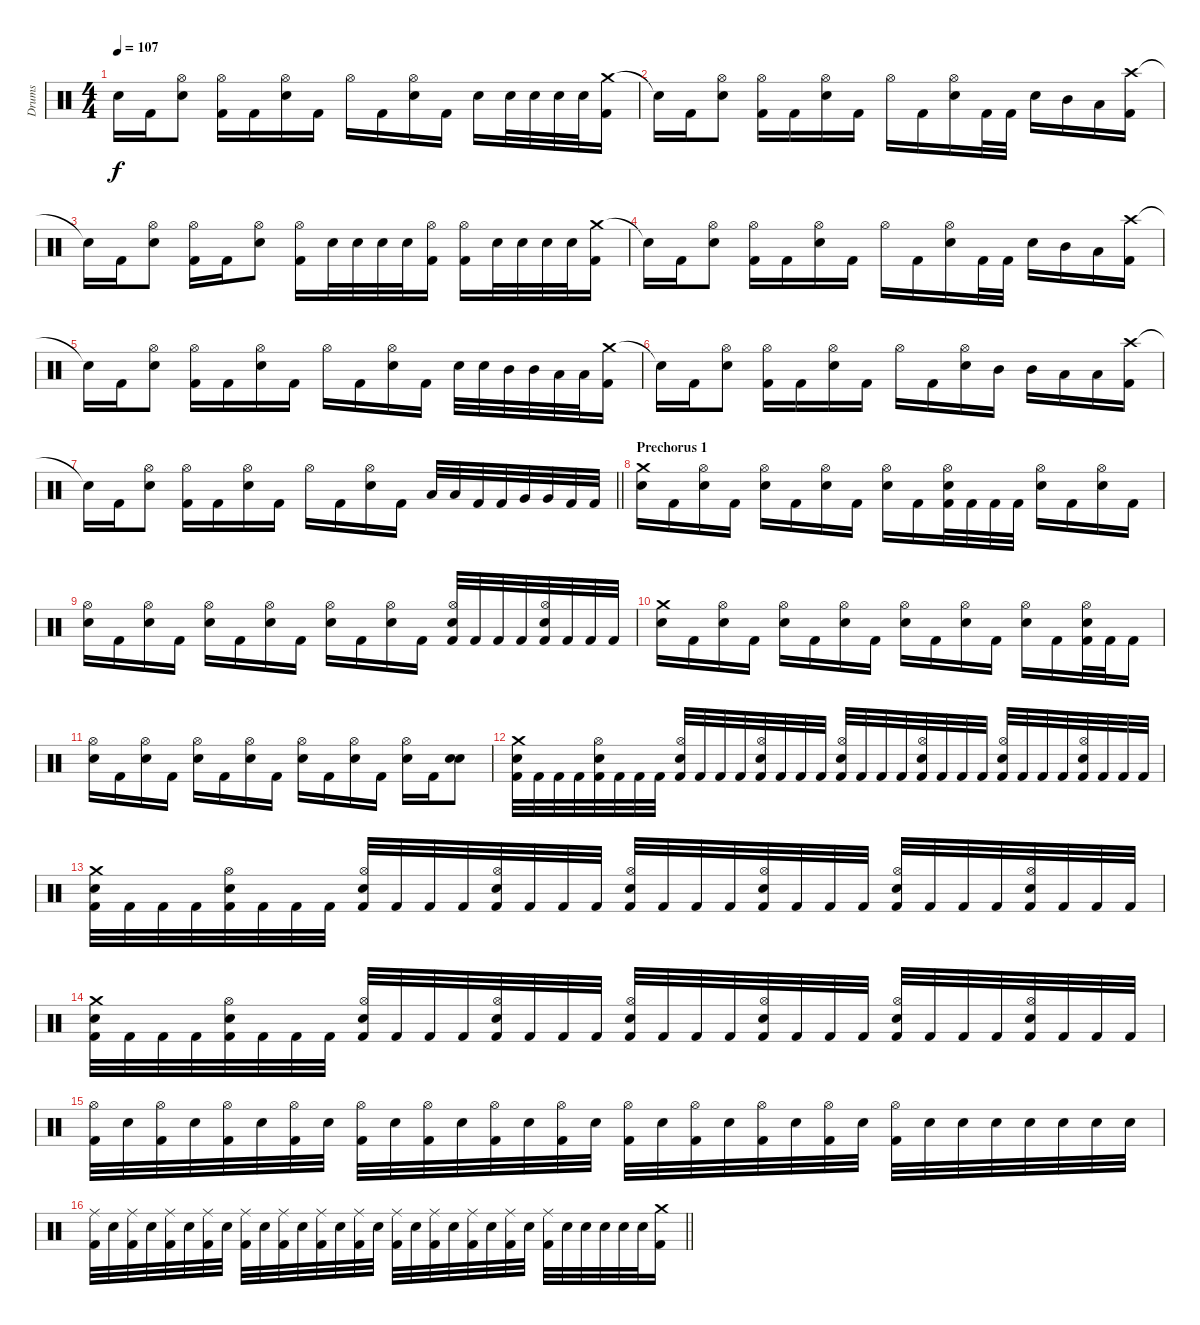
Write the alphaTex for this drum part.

\track ("Drums" "Drums") {instrument percussion}
\staff {score}
\articulation defaults
\ts (4 4)
\tempo 107
\clef neutral
\ks c "Snare (hit)"{t}.16{dy f} "Kick (hit) 2".16
("Hi-Hat (open)" "Electric Snare (hit)").8 ("Hi-Hat (open)" "Kick (hit) 2").16 "Kick (hit) 2".16 ("Hi-Hat (open)" "Electric Snare (hit)").16 "Kick (hit) 2".16 "Hi-Hat (open)".16 "Kick (hit) 2".16 ("Hi-Hat (open)" "Electric Snare (hit)").16 "Kick (hit) 2".16 "Electric Snare (hit)".16 "Electric Snare (hit)".32 "Electric Snare (hit)".32 "Electric Snare (hit)".32 "Electric Snare (hit)".32 ("Crash medium (hit)" "Kick (hit) 2").16 |
"Snare (hit)"{t}.16 "Kick (hit) 2".16 ("Hi-Hat (open)" "Electric Snare (hit)").8 ("Hi-Hat (open)" "Kick (hit) 2").16 "Kick (hit) 2".16 ("Hi-Hat (open)" "Electric Snare (hit)").16 "Kick (hit) 2".16 "Hi-Hat (open)".16 "Kick (hit) 2".16 ("Hi-Hat (open)" "Electric Snare (hit)").16 "Kick (hit) 2".32 "Kick (hit) 2".32 "Electric Snare (hit)".16 "Mid Tom (hit)".16 "Low Tom (hit)".16 ("Crash high (hit)" "Kick (hit) 2").16 |
"Snare (hit)"{t}.16 "Kick (hit) 2".16 ("Hi-Hat (open)" "Electric Snare (hit)").8 ("Hi-Hat (open)" "Kick (hit) 2").16 "Kick (hit) 2".16 ("Hi-Hat (open)" "Electric Snare (hit)").8 ("Hi-Hat (open)" "Kick (hit) 2").16 "Electric Snare (hit)".32 "Electric Snare (hit)".32 "Electric Snare (hit)".32 "Electric Snare (hit)".32 ("Hi-Hat (open)" "Kick (hit) 2").16 ("Hi-Hat (open)" "Kick (hit) 2").16 "Electric Snare (hit)".32 "Electric Snare (hit)".32 "Electric Snare (hit)".32 "Electric Snare (hit)".32 ("Crash medium (hit)" "Kick (hit) 2").16 |
"Snare (hit)"{t}.16 "Kick (hit) 2".16 ("Hi-Hat (open)" "Electric Snare (hit)").8 ("Hi-Hat (open)" "Kick (hit) 2").16 "Kick (hit) 2".16 ("Hi-Hat (open)" "Electric Snare (hit)").16 "Kick (hit) 2".16 "Hi-Hat (open)".16 "Kick (hit) 2".16 ("Hi-Hat (open)" "Electric Snare (hit)").16 "Kick (hit) 2".32 "Kick (hit) 2".32 "Electric Snare (hit)".16 "Mid Tom (hit)".16 "Low Tom (hit)".16 ("Crash high (hit)" "Kick (hit) 2").16 |
"Snare (hit)"{t}.16 "Kick (hit) 2".16 ("Hi-Hat (open)" "Electric Snare (hit)").8 ("Hi-Hat (open)" "Kick (hit) 2").16 "Kick (hit) 2".16 ("Hi-Hat (open)" "Electric Snare (hit)").16 "Kick (hit) 2".16 "Hi-Hat (open)".16 "Kick (hit) 2".16 ("Hi-Hat (open)" "Electric Snare (hit)").16 "Kick (hit) 2".16 "Electric Snare (hit)".32 "Electric Snare (hit)".32 "Mid Tom (hit)".32 "Mid Tom (hit)".32 "Low Tom (hit)".32 "Low Tom (hit)".32 ("Crash medium (hit)" "Kick (hit) 2").16 |
"Snare (hit)"{t}.16 "Kick (hit) 2".16 ("Hi-Hat (open)" "Electric Snare (hit)").8 ("Hi-Hat (open)" "Kick (hit) 2").16 "Kick (hit) 2".16 ("Hi-Hat (open)" "Electric Snare (hit)").16 "Kick (hit) 2".16 "Hi-Hat (open)".16 "Kick (hit) 2".16 ("Hi-Hat (open)" "Electric Snare (hit)").16 "Mid Tom (hit)".16 "Mid Tom (hit)".16 "Low Tom (hit)".16 "Low Tom (hit)".16 ("Crash high (hit)" "Kick (hit) 2").16 |
\barLineRight lightlight "Snare (hit)"{t}.16 "Kick (hit) 2".16
("Hi-Hat (open)" "Electric Snare (hit)").8 ("Hi-Hat (open)" "Kick (hit) 2").16 "Kick (hit) 2".16 ("Hi-Hat (open)" "Electric Snare (hit)").16 "Kick (hit) 2".16 "Hi-Hat (open)".16 "Kick (hit) 2".16 ("Hi-Hat (open)" "Electric Snare (hit)").16 "Kick (hit) 2".16 "Low Tom (hit)".32 "Low Tom (hit)".32 "Kick (hit) 2".32 "Kick (hit) 2".32 "Very Low Tom (hit)".32 "Very Low Tom (hit)".32 "Kick (hit) 2".32 "Kick (hit) 2".32 |
\section ("" "Prechorus 1")
("Crash medium (hit)" "Electric Snare (hit)").16 "Kick (hit) 2".16 ("Hi-Hat (open)" "Electric Snare (hit)").16 "Kick (hit) 2".16 ("Hi-Hat (open)" "Electric Snare (hit)").16 "Kick (hit) 2".16 ("Hi-Hat (open)" "Electric Snare (hit)").16 "Kick (hit) 2".16 ("Hi-Hat (open)" "Electric Snare (hit)").16 "Kick (hit) 2".16 ("Hi-Hat (open)" "Electric Snare (hit)" "Kick (hit) 2").32 "Kick (hit) 2".32 "Kick (hit) 2".32 "Kick (hit) 2".32 ("Hi-Hat (open)" "Electric Snare (hit)").16 "Kick (hit) 2".16 ("Hi-Hat (open)" "Electric Snare (hit)").16 "Kick (hit) 2".16 |
("Hi-Hat (open)" "Electric Snare (hit)").16 "Kick (hit) 2".16 ("Hi-Hat (open)" "Electric Snare (hit)").16 "Kick (hit) 2".16 ("Hi-Hat (open)" "Electric Snare (hit)").16 "Kick (hit) 2".16 ("Hi-Hat (open)" "Electric Snare (hit)").16 "Kick (hit) 2".16 ("Hi-Hat (open)" "Electric Snare (hit)").16 "Kick (hit) 2".16 ("Hi-Hat (open)" "Electric Snare (hit)").16 "Kick (hit) 2".16 ("Hi-Hat (open)" "Electric Snare (hit)" "Kick (hit) 2").32 "Kick (hit) 2".32 "Kick (hit) 2".32 "Kick (hit) 2".32 ("Hi-Hat (open)" "Electric Snare (hit)" "Kick (hit) 2").32 "Kick (hit) 2".32 "Kick (hit) 2".32 "Kick (hit) 2".32 |
("Crash medium (hit)" "Electric Snare (hit)").16 "Kick (hit) 2".16 ("Hi-Hat (open)" "Electric Snare (hit)").16 "Kick (hit) 2".16 ("Hi-Hat (open)" "Electric Snare (hit)").16 "Kick (hit) 2".16 ("Hi-Hat (open)" "Electric Snare (hit)").16 "Kick (hit) 2".16 ("Hi-Hat (open)" "Electric Snare (hit)").16 "Kick (hit) 2".16 ("Hi-Hat (open)" "Electric Snare (hit)").16 "Kick (hit) 2".16 ("Hi-Hat (open)" "Electric Snare (hit)").16 "Kick (hit) 2".16 ("Hi-Hat (open)" "Electric Snare (hit)" "Kick (hit) 2").32 "Kick (hit) 2".32 "Kick (hit) 2".16 |
("Hi-Hat (open)" "Electric Snare (hit)").16 "Kick (hit) 2".16 ("Hi-Hat (open)" "Electric Snare (hit)").16 "Kick (hit) 2".16 ("Hi-Hat (open)" "Electric Snare (hit)").16 "Kick (hit) 2".16 ("Hi-Hat (open)" "Electric Snare (hit)").16 "Kick (hit) 2".16 ("Hi-Hat (open)" "Electric Snare (hit)").16 "Kick (hit) 2".16 ("Hi-Hat (open)" "Electric Snare (hit)").16 "Kick (hit) 2".16 ("Hi-Hat (open)" "Electric Snare (hit)").16 "Kick (hit) 2".16 ("Electric Snare (hit)" "Electric Snare (hit)").8 |
("Crash medium (hit)" "Electric Snare (hit)" "Kick (hit) 2").32 "Kick (hit) 2".32 "Kick (hit) 2".32 "Kick (hit) 2".32 ("Hi-Hat (open)" "Electric Snare (hit)" "Kick (hit) 2").32 "Kick (hit) 2".32 "Kick (hit) 2".32 "Kick (hit) 2".32 ("Hi-Hat (open)" "Electric Snare (hit)" "Kick (hit) 2").32 "Kick (hit) 2".32 "Kick (hit) 2".32 "Kick (hit) 2".32 ("Hi-Hat (open)" "Electric Snare (hit)" "Kick (hit) 2").32 "Kick (hit) 2".32 "Kick (hit) 2".32 "Kick (hit) 2".32 ("Hi-Hat (open)" "Electric Snare (hit)" "Kick (hit) 2").32 "Kick (hit) 2".32 "Kick (hit) 2".32 "Kick (hit) 2".32 ("Hi-Hat (open)" "Electric Snare (hit)" "Kick (hit) 2").32 "Kick (hit) 2".32 "Kick (hit) 2".32 "Kick (hit) 2".32 ("Hi-Hat (open)" "Electric Snare (hit)" "Kick (hit) 2").32 "Kick (hit) 2".32 "Kick (hit) 2".32 "Kick (hit) 2".32 ("Hi-Hat (open)" "Electric Snare (hit)" "Kick (hit) 2").32 "Kick (hit) 2".32 "Kick (hit) 2".32 "Kick (hit) 2".32 |
("Crash medium (hit)" "Electric Snare (hit)" "Kick (hit) 2").32 "Kick (hit) 2".32 "Kick (hit) 2".32 "Kick (hit) 2".32 ("Hi-Hat (open)" "Electric Snare (hit)" "Kick (hit) 2").32 "Kick (hit) 2".32 "Kick (hit) 2".32 "Kick (hit) 2".32 ("Hi-Hat (open)" "Electric Snare (hit)" "Kick (hit) 2").32 "Kick (hit) 2".32 "Kick (hit) 2".32 "Kick (hit) 2".32 ("Hi-Hat (open)" "Electric Snare (hit)" "Kick (hit) 2").32 "Kick (hit) 2".32 "Kick (hit) 2".32 "Kick (hit) 2".32 ("Hi-Hat (open)" "Electric Snare (hit)" "Kick (hit) 2").32 "Kick (hit) 2".32 "Kick (hit) 2".32 "Kick (hit) 2".32 ("Hi-Hat (open)" "Electric Snare (hit)" "Kick (hit) 2").32 "Kick (hit) 2".32 "Kick (hit) 2".32 "Kick (hit) 2".32 ("Hi-Hat (open)" "Electric Snare (hit)" "Kick (hit) 2").32 "Kick (hit) 2".32 "Kick (hit) 2".32 "Kick (hit) 2".32 ("Hi-Hat (open)" "Electric Snare (hit)" "Kick (hit) 2").32 "Kick (hit) 2".32 "Kick (hit) 2".32 "Kick (hit) 2".32 |
("Crash medium (hit)" "Electric Snare (hit)" "Kick (hit) 2").32 "Kick (hit) 2".32 "Kick (hit) 2".32 "Kick (hit) 2".32 ("Hi-Hat (open)" "Electric Snare (hit)" "Kick (hit) 2").32 "Kick (hit) 2".32 "Kick (hit) 2".32 "Kick (hit) 2".32 ("Hi-Hat (open)" "Electric Snare (hit)" "Kick (hit) 2").32 "Kick (hit) 2".32 "Kick (hit) 2".32 "Kick (hit) 2".32 ("Hi-Hat (open)" "Electric Snare (hit)" "Kick (hit) 2").32 "Kick (hit) 2".32 "Kick (hit) 2".32 "Kick (hit) 2".32 ("Hi-Hat (open)" "Electric Snare (hit)" "Kick (hit) 2").32 "Kick (hit) 2".32 "Kick (hit) 2".32 "Kick (hit) 2".32 ("Hi-Hat (open)" "Electric Snare (hit)" "Kick (hit) 2").32 "Kick (hit) 2".32 "Kick (hit) 2".32 "Kick (hit) 2".32 ("Hi-Hat (open)" "Electric Snare (hit)" "Kick (hit) 2").32 "Kick (hit) 2".32 "Kick (hit) 2".32 "Kick (hit) 2".32 ("Hi-Hat (open)" "Electric Snare (hit)" "Kick (hit) 2").32 "Kick (hit) 2".32 "Kick (hit) 2".32 "Kick (hit) 2".32 |
("Hi-Hat (open)" "Kick (hit) 2").32 "Electric Snare (hit)".32 ("Hi-Hat (open)" "Kick (hit) 2").32 "Electric Snare (hit)".32 ("Hi-Hat (open)" "Kick (hit) 2").32 "Electric Snare (hit)".32 ("Hi-Hat (open)" "Kick (hit) 2").32 "Electric Snare (hit)".32 ("Hi-Hat (open)" "Kick (hit) 2").32 "Electric Snare (hit)".32 ("Hi-Hat (open)" "Kick (hit) 2").32 "Electric Snare (hit)".32 ("Hi-Hat (open)" "Kick (hit) 2").32 "Electric Snare (hit)".32 ("Hi-Hat (open)" "Kick (hit) 2").32 "Electric Snare (hit)".32 ("Hi-Hat (open)" "Kick (hit) 2").32 "Electric Snare (hit)".32 ("Hi-Hat (open)" "Kick (hit) 2").32 "Electric Snare (hit)".32 ("Hi-Hat (open)" "Kick (hit) 2").32 "Electric Snare (hit)".32 ("Hi-Hat (open)" "Kick (hit) 2").32 "Electric Snare (hit)".32 ("Hi-Hat (open)" "Kick (hit) 2").32 "Electric Snare (hit)".32 "Electric Snare (hit)".32 "Electric Snare (hit)".32 "Electric Snare (hit)".32 "Electric Snare (hit)".32 "Electric Snare (hit)".32 "Electric Snare (hit)".32 |
\barLineRight lightlight
("Ride (middle)" "Kick (hit) 2").32 "Electric Snare (hit)".32 ("Ride (middle)" "Kick (hit) 2").32 "Electric Snare (hit)".32 ("Ride (middle)" "Kick (hit) 2").32 "Electric Snare (hit)".32 ("Ride (middle)" "Kick (hit) 2").32 "Electric Snare (hit)".32 ("Ride (middle)" "Kick (hit) 2").32 "Electric Snare (hit)".32 ("Ride (middle)" "Kick (hit) 2").32 "Electric Snare (hit)".32 ("Ride (middle)" "Kick (hit) 2").32 "Electric Snare (hit)".32 ("Ride (middle)" "Kick (hit) 2").32 "Electric Snare (hit)".32 ("Ride (middle)" "Kick (hit) 2").32 "Electric Snare (hit)".32 ("Ride (middle)" "Kick (hit) 2").32 "Electric Snare (hit)".32 ("Ride (middle)" "Kick (hit) 2").32 "Electric Snare (hit)".32 ("Ride (middle)" "Kick (hit) 2").32 "Electric Snare (hit)".32 ("Ride (middle)" "Kick (hit) 2").32 "Electric Snare (hit)".32 "Electric Snare (hit)".32 "Electric Snare (hit)".32 "Electric Snare (hit)".32 "Electric Snare (hit)".32 ("Crash medium (hit)" "Kick (hit) 2").16
